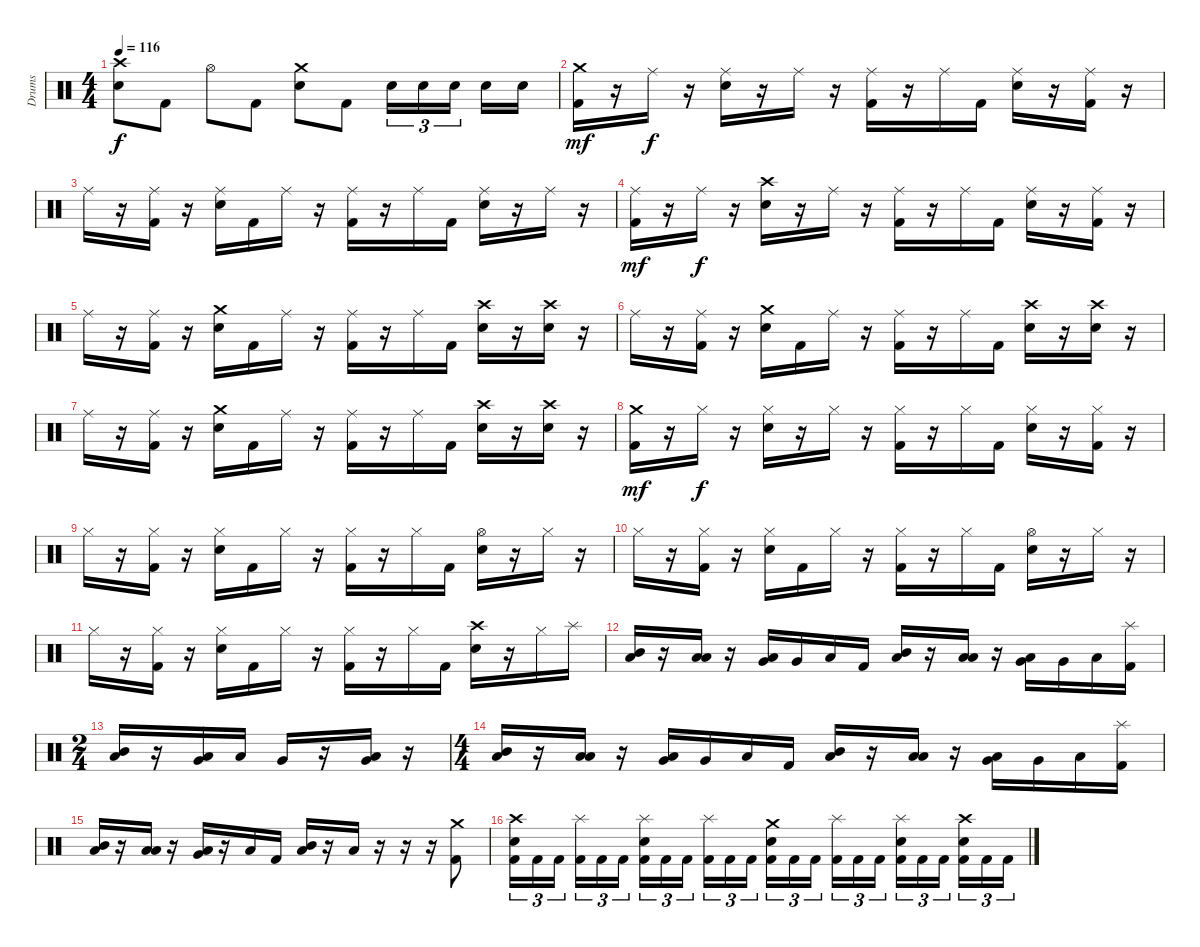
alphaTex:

\track ("Drums" "Drums") {instrument percussion}
\staff {score}
\articulation defaults
\ts (4 4)
\tempo 116
\clef neutral
\ks c
("Crash high (hit)" "Snare (hit) 2").8{dy f} "Kick (hit) 2".8 "Hi-Hat (open)".8 "Kick (hit) 2".8 ("Crash medium (hit)" "Snare (hit) 2").8 "Kick (hit) 2".8 "Snare (hit) 2".16{tu (3 2)} "Snare (hit) 2".16{tu (3 2)} "Snare (hit) 2".16{tu (3 2)} "Snare (hit) 2".16 "Snare (hit) 2".16 |
("Crash medium (hit)" "Kick (hit) 2").16{dy mf} r.16 "Ride (middle)".16{dy f} r.16 ("Ride (middle)" "Snare (hit) 2").16 r.16 "Ride (middle)".16 r.16 ("Ride (middle)" "Kick (hit) 2").16 r.16 "Ride (middle)".16 "Kick (hit) 2".16 ("Ride (middle)" "Snare (hit) 2").16 r.16 ("Ride (middle)" "Kick (hit) 2").16 r.16 |
"Ride (middle)".16 r.16 ("Ride (middle)" "Kick (hit) 2").16 r.16 ("Ride (middle)" "Snare (hit) 2").16 "Kick (hit) 2".16 "Ride (middle)".16 r.16 ("Ride (middle)" "Kick (hit) 2").16 r.16 "Ride (middle)".16 "Kick (hit) 2".16 ("Ride (middle)" "Snare (hit) 2").16 r.16 "Ride (middle)".16 r.16 |
("Ride (middle)" "Kick (hit) 2").16{dy mf} r.16 "Ride (middle)".16{dy f} r.16 ("Crash high (hit)" "Snare (hit) 2").16 r.16 "Ride (middle)".16 r.16 ("Ride (middle)" "Kick (hit) 2").16 r.16 "Ride (middle)".16 "Kick (hit) 2".16 ("Ride (middle)" "Snare (hit) 2").16 r.16 ("Ride (middle)" "Kick (hit) 2").16 r.16 |
"Ride (middle)".16 r.16 ("Ride (middle)" "Kick (hit) 2").16 r.16 ("Crash medium (hit)" "Snare (hit) 2").16 "Kick (hit) 2".16 "Ride (middle)".16 r.16 ("Ride (middle)" "Kick (hit) 2").16 r.16 "Ride (middle)".16 "Kick (hit) 2".16 ("Crash high (hit)" "Snare (hit) 2").16 r.16 ("Crash high (hit)" "Snare (hit) 2").16 r.16 |
"Ride (middle)".16 r.16 ("Ride (middle)" "Kick (hit) 2").16 r.16 ("Crash medium (hit)" "Snare (hit) 2").16 "Kick (hit) 2".16 "Ride (middle)".16 r.16 ("Ride (middle)" "Kick (hit) 2").16 r.16 "Ride (middle)".16 "Kick (hit) 2".16 ("Crash high (hit)" "Snare (hit) 2").16 r.16 ("Crash high (hit)" "Snare (hit) 2").16 r.16 |
"Ride (middle)".16 r.16 ("Ride (middle)" "Kick (hit) 2").16 r.16 ("Crash medium (hit)" "Snare (hit) 2").16 "Kick (hit) 2".16 "Ride (middle)".16 r.16 ("Ride (middle)" "Kick (hit) 2").16 r.16 "Ride (middle)".16 "Kick (hit) 2".16 ("Crash high (hit)" "Snare (hit) 2").16 r.16 ("Crash high (hit)" "Snare (hit) 2").16 r.16 |
("Crash medium (hit)" "Kick (hit) 2").16{dy mf} r.16 "Hi-Hat (closed)".16{dy f} r.16 ("Hi-Hat (closed)" "Snare (hit) 2").16 r.16 "Hi-Hat (closed)".16 r.16 ("Hi-Hat (closed)" "Kick (hit) 2").16 r.16 "Hi-Hat (closed)".16 "Kick (hit) 2".16 ("Hi-Hat (closed)" "Snare (hit) 2").16 r.16 ("Hi-Hat (closed)" "Kick (hit) 2").16 r.16 |
"Hi-Hat (closed)".16 r.16 ("Hi-Hat (closed)" "Kick (hit) 2").16 r.16 ("Hi-Hat (closed)" "Snare (hit) 2").16 "Kick (hit) 2".16 "Hi-Hat (closed)".16 r.16 ("Hi-Hat (closed)" "Kick (hit) 2").16 r.16 "Hi-Hat (closed)".16 "Kick (hit) 2".16 ("Hi-Hat (open)" "Snare (hit) 2").16 r.16 "Hi-Hat (closed)".16 r.16 |
"Hi-Hat (closed)".16 r.16 ("Hi-Hat (closed)" "Kick (hit) 2").16 r.16 ("Hi-Hat (closed)" "Snare (hit) 2").16 "Kick (hit) 2".16 "Hi-Hat (closed)".16 r.16 ("Hi-Hat (closed)" "Kick (hit) 2").16 r.16 "Hi-Hat (closed)".16 "Kick (hit) 2".16 ("Hi-Hat (open)" "Snare (hit) 2").16 r.16 "Hi-Hat (closed)".16 r.16 |
"Hi-Hat (closed)".16 r.16 ("Hi-Hat (closed)" "Kick (hit) 2").16 r.16 ("Hi-Hat (closed)" "Snare (hit) 2").16 "Kick (hit) 2".16 "Hi-Hat (closed)".16 r.16 ("Hi-Hat (closed)" "Kick (hit) 2").16 r.16 "Hi-Hat (closed)".16 "Kick (hit) 2".16 ("Crash high (hit)" "Snare (hit) 2").16 r.16 "Hi-Hat (closed)".16 "Splash (hit)".16 |
("Mid Tom (hit)" "Low Floor Tom (hit)").16 r.16 ("Low Tom (hit)" "Low Floor Tom (hit)").16 r.16 ("Very Low Tom (hit)" "Low Floor Tom (hit)").16 "Very Low Tom (hit)".16 "Low Floor Tom (hit)".16 "Kick (hit) 2".16 ("Mid Tom (hit)" "Low Floor Tom (hit)").16 r.16 ("Low Tom (hit)" "Low Floor Tom (hit)").16 r.16 ("Very Low Tom (hit)" "Low Floor Tom (hit)").16 "Very Low Tom (hit)".16 "Low Floor Tom (hit)".16 ("Splash (hit)" "Kick (hit) 2").16 |
\ts (2 4)
("Mid Tom (hit)" "Low Tom (hit)").16 r.16 ("Very Low Tom (hit)" "Low Tom (hit)").16 "Low Tom (hit)".16 "Very Low Tom (hit)".16 r.16 ("Low Floor Tom (hit)" "Very Low Tom (hit)").16 r.16 |
\ts (4 4)
("Mid Tom (hit)" "Low Floor Tom (hit)").16 r.16 ("Low Tom (hit)" "Low Floor Tom (hit)").16 r.16 ("Very Low Tom (hit)" "Low Floor Tom (hit)").16 "Very Low Tom (hit)".16 "Low Floor Tom (hit)".16 "Kick (hit) 2".16 ("Mid Tom (hit)" "Low Floor Tom (hit)").16 r.16 ("Low Tom (hit)" "Low Floor Tom (hit)").16 r.16 ("Very Low Tom (hit)" "Low Floor Tom (hit)").16 "Very Low Tom (hit)".16 "Low Floor Tom (hit)".16 ("Splash (hit)" "Kick (hit) 2").16 |
("Mid Tom (hit)" "Low Floor Tom (hit)").16 r.16 ("Low Tom (hit)" "Low Floor Tom (hit)").16 r.16 ("Very Low Tom (hit)" "Low Floor Tom (hit)").16 r.16 "Low Floor Tom (hit)".16 "Kick (hit) 2".16 ("Mid Tom (hit)" "Low Floor Tom (hit)").16 r.16 "Low Floor Tom (hit)".16 r.16 r.16 r.16 ("Crash medium (hit)" "Kick (hit) 2").8 |
("Crash high (hit)" "Snare (hit) 2" "Kick (hit) 2").16{tu (3 2)} "Kick (hit) 2".16{tu (3 2)} "Kick (hit) 2".16{tu (3 2)} ("Splash (hit)" "Kick (hit) 2").16{tu (3 2)} "Kick (hit) 2".16{tu (3 2)} "Kick (hit) 2".16{tu (3 2)} ("Splash (hit)" "Snare (hit) 2" "Kick (hit) 2").16{tu (3 2)} "Kick (hit) 2".16{tu (3 2)} "Kick (hit) 2".16{tu (3 2)} ("Splash (hit)" "Kick (hit) 2").16{tu (3 2)} "Kick (hit) 2".16{tu (3 2)} "Kick (hit) 2".16{tu (3 2)} ("Crash medium (hit)" "Snare (hit) 2" "Kick (hit) 2").16{tu (3 2)} "Kick (hit) 2".16{tu (3 2)} "Kick (hit) 2".16{tu (3 2)} ("Splash (hit)" "Kick (hit) 2").16{tu (3 2)} "Kick (hit) 2".16{tu (3 2)} "Kick (hit) 2".16{tu (3 2)} ("Splash (hit)" "Snare (hit) 2" "Kick (hit) 2").16{tu (3 2)} "Kick (hit) 2".16{tu (3 2)} "Kick (hit) 2".16{tu (3 2)} ("Crash high (hit)" "Snare (hit) 2" "Kick (hit) 2").16{tu (3 2)} "Kick (hit) 2".16{tu (3 2)} "Kick (hit) 2".16{tu (3 2)}
